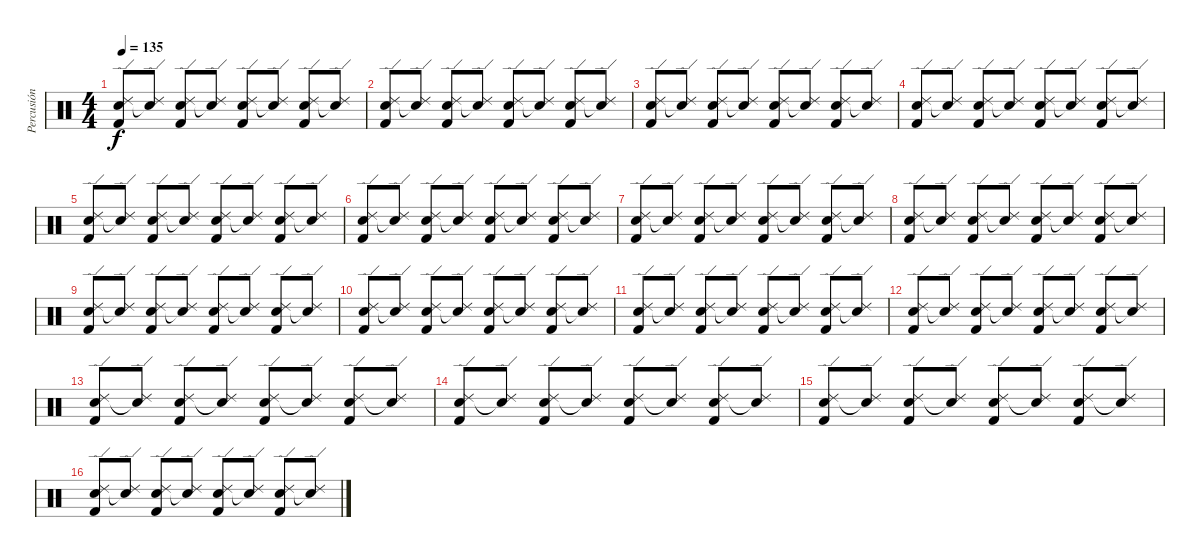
\track ("Percusión" "Percusión") {instrument percussion}
\staff {score}
\articulation defaults
\ts (4 4)
\tempo 135
\clef neutral
\ks c
("Kick (hit) 2" "Ride (edge) 2" "Electric Snare (hit)").8{dy f} ("Ride (edge) 2" "Snare (hit)"{t}).8 ("Kick (hit) 2" "Ride (edge) 2" "Electric Snare (hit)").8 ("Ride (edge) 2" "Snare (hit)"{t}).8 ("Kick (hit) 2" "Ride (edge) 2" "Electric Snare (hit)").8 ("Ride (edge) 2" "Snare (hit)"{t}).8 ("Kick (hit) 2" "Ride (edge) 2" "Electric Snare (hit)").8 ("Ride (edge) 2" "Snare (hit)"{t}).8 |
("Kick (hit) 2" "Ride (edge) 2" "Electric Snare (hit)").8 ("Ride (edge) 2" "Snare (hit)"{t}).8 ("Kick (hit) 2" "Ride (edge) 2" "Electric Snare (hit)").8 ("Ride (edge) 2" "Snare (hit)"{t}).8 ("Kick (hit) 2" "Ride (edge) 2" "Electric Snare (hit)").8 ("Ride (edge) 2" "Snare (hit)"{t}).8 ("Kick (hit) 2" "Ride (edge) 2" "Electric Snare (hit)").8 ("Ride (edge) 2" "Snare (hit)"{t}).8 |
("Kick (hit) 2" "Ride (edge) 2" "Electric Snare (hit)").8 ("Ride (edge) 2" "Snare (hit)"{t}).8 ("Kick (hit) 2" "Ride (edge) 2" "Electric Snare (hit)").8 ("Ride (edge) 2" "Snare (hit)"{t}).8 ("Kick (hit) 2" "Ride (edge) 2" "Electric Snare (hit)").8 ("Ride (edge) 2" "Snare (hit)"{t}).8 ("Kick (hit) 2" "Ride (edge) 2" "Electric Snare (hit)").8 ("Ride (edge) 2" "Snare (hit)"{t}).8 |
("Kick (hit) 2" "Ride (edge) 2" "Electric Snare (hit)").8 ("Ride (edge) 2" "Snare (hit)"{t}).8 ("Kick (hit) 2" "Ride (edge) 2" "Electric Snare (hit)").8 ("Ride (edge) 2" "Snare (hit)"{t}).8 ("Kick (hit) 2" "Ride (edge) 2" "Electric Snare (hit)").8 ("Ride (edge) 2" "Snare (hit)"{t}).8 ("Kick (hit) 2" "Ride (edge) 2" "Electric Snare (hit)").8 ("Ride (edge) 2" "Snare (hit)"{t}).8 |
("Kick (hit) 2" "Ride (edge) 2" "Electric Snare (hit)").8 ("Ride (edge) 2" "Snare (hit)"{t}).8 ("Kick (hit) 2" "Ride (edge) 2" "Electric Snare (hit)").8 ("Ride (edge) 2" "Snare (hit)"{t}).8 ("Kick (hit) 2" "Ride (edge) 2" "Electric Snare (hit)").8 ("Ride (edge) 2" "Snare (hit)"{t}).8 ("Kick (hit) 2" "Ride (edge) 2" "Electric Snare (hit)").8 ("Ride (edge) 2" "Snare (hit)"{t}).8 |
("Kick (hit) 2" "Ride (edge) 2" "Electric Snare (hit)").8 ("Ride (edge) 2" "Snare (hit)"{t}).8 ("Kick (hit) 2" "Ride (edge) 2" "Electric Snare (hit)").8 ("Ride (edge) 2" "Snare (hit)"{t}).8 ("Kick (hit) 2" "Ride (edge) 2" "Electric Snare (hit)").8 ("Ride (edge) 2" "Snare (hit)"{t}).8 ("Kick (hit) 2" "Ride (edge) 2" "Electric Snare (hit)").8 ("Ride (edge) 2" "Snare (hit)"{t}).8 |
("Kick (hit) 2" "Ride (edge) 2" "Electric Snare (hit)").8 ("Ride (edge) 2" "Snare (hit)"{t}).8 ("Kick (hit) 2" "Ride (edge) 2" "Electric Snare (hit)").8 ("Ride (edge) 2" "Snare (hit)"{t}).8 ("Kick (hit) 2" "Ride (edge) 2" "Electric Snare (hit)").8 ("Ride (edge) 2" "Snare (hit)"{t}).8 ("Kick (hit) 2" "Ride (edge) 2" "Electric Snare (hit)").8 ("Ride (edge) 2" "Snare (hit)"{t}).8 |
("Kick (hit) 2" "Ride (edge) 2" "Electric Snare (hit)").8 ("Ride (edge) 2" "Snare (hit)"{t}).8 ("Kick (hit) 2" "Ride (edge) 2" "Electric Snare (hit)").8 ("Ride (edge) 2" "Snare (hit)"{t}).8 ("Kick (hit) 2" "Ride (edge) 2" "Electric Snare (hit)").8 ("Ride (edge) 2" "Snare (hit)"{t}).8 ("Kick (hit) 2" "Ride (edge) 2" "Electric Snare (hit)").8 ("Ride (edge) 2" "Snare (hit)"{t}).8 |
("Kick (hit) 2" "Ride (edge) 2" "Electric Snare (hit)").8 ("Ride (edge) 2" "Snare (hit)"{t}).8 ("Kick (hit) 2" "Ride (edge) 2" "Electric Snare (hit)").8 ("Ride (edge) 2" "Snare (hit)"{t}).8 ("Kick (hit) 2" "Ride (edge) 2" "Electric Snare (hit)").8 ("Ride (edge) 2" "Snare (hit)"{t}).8 ("Kick (hit) 2" "Ride (edge) 2" "Electric Snare (hit)").8 ("Ride (edge) 2" "Snare (hit)"{t}).8 |
("Kick (hit) 2" "Ride (edge) 2" "Electric Snare (hit)").8 ("Ride (edge) 2" "Snare (hit)"{t}).8 ("Kick (hit) 2" "Ride (edge) 2" "Electric Snare (hit)").8 ("Ride (edge) 2" "Snare (hit)"{t}).8 ("Kick (hit) 2" "Ride (edge) 2" "Electric Snare (hit)").8 ("Ride (edge) 2" "Snare (hit)"{t}).8 ("Kick (hit) 2" "Ride (edge) 2" "Electric Snare (hit)").8 ("Ride (edge) 2" "Snare (hit)"{t}).8 |
("Kick (hit) 2" "Ride (edge) 2" "Electric Snare (hit)").8 ("Ride (edge) 2" "Snare (hit)"{t}).8 ("Kick (hit) 2" "Ride (edge) 2" "Electric Snare (hit)").8 ("Ride (edge) 2" "Snare (hit)"{t}).8 ("Kick (hit) 2" "Ride (edge) 2" "Electric Snare (hit)").8 ("Ride (edge) 2" "Snare (hit)"{t}).8 ("Kick (hit) 2" "Ride (edge) 2" "Electric Snare (hit)").8 ("Ride (edge) 2" "Snare (hit)"{t}).8 |
("Kick (hit) 2" "Ride (edge) 2" "Electric Snare (hit)").8 ("Ride (edge) 2" "Snare (hit)"{t}).8 ("Kick (hit) 2" "Ride (edge) 2" "Electric Snare (hit)").8 ("Ride (edge) 2" "Snare (hit)"{t}).8 ("Kick (hit) 2" "Ride (edge) 2" "Electric Snare (hit)").8 ("Ride (edge) 2" "Snare (hit)"{t}).8 ("Kick (hit) 2" "Ride (edge) 2" "Electric Snare (hit)").8 ("Ride (edge) 2" "Snare (hit)"{t}).8 |
("Kick (hit) 2" "Ride (edge) 2" "Electric Snare (hit)").8 ("Ride (edge) 2" "Snare (hit)"{t}).8 ("Kick (hit) 2" "Ride (edge) 2" "Electric Snare (hit)").8 ("Ride (edge) 2" "Snare (hit)"{t}).8 ("Kick (hit) 2" "Ride (edge) 2" "Electric Snare (hit)").8 ("Ride (edge) 2" "Snare (hit)"{t}).8 ("Kick (hit) 2" "Ride (edge) 2" "Electric Snare (hit)").8 ("Ride (edge) 2" "Snare (hit)"{t}).8 |
("Kick (hit) 2" "Ride (edge) 2" "Electric Snare (hit)").8 ("Ride (edge) 2" "Snare (hit)"{t}).8 ("Kick (hit) 2" "Ride (edge) 2" "Electric Snare (hit)").8 ("Ride (edge) 2" "Snare (hit)"{t}).8 ("Kick (hit) 2" "Ride (edge) 2" "Electric Snare (hit)").8 ("Ride (edge) 2" "Snare (hit)"{t}).8 ("Kick (hit) 2" "Ride (edge) 2" "Electric Snare (hit)").8 ("Ride (edge) 2" "Snare (hit)"{t}).8 |
("Kick (hit) 2" "Ride (edge) 2" "Electric Snare (hit)").8 ("Ride (edge) 2" "Snare (hit)"{t}).8 ("Kick (hit) 2" "Ride (edge) 2" "Electric Snare (hit)").8 ("Ride (edge) 2" "Snare (hit)"{t}).8 ("Kick (hit) 2" "Ride (edge) 2" "Electric Snare (hit)").8 ("Ride (edge) 2" "Snare (hit)"{t}).8 ("Kick (hit) 2" "Ride (edge) 2" "Electric Snare (hit)").8 ("Ride (edge) 2" "Snare (hit)"{t}).8 |
("Kick (hit) 2" "Ride (edge) 2" "Electric Snare (hit)").8 ("Ride (edge) 2" "Snare (hit)"{t}).8 ("Kick (hit) 2" "Ride (edge) 2" "Electric Snare (hit)").8 ("Ride (edge) 2" "Snare (hit)"{t}).8 ("Kick (hit) 2" "Ride (edge) 2" "Electric Snare (hit)").8 ("Ride (edge) 2" "Snare (hit)"{t}).8 ("Kick (hit) 2" "Ride (edge) 2" "Electric Snare (hit)").8 ("Ride (edge) 2" "Snare (hit)"{t}).8
